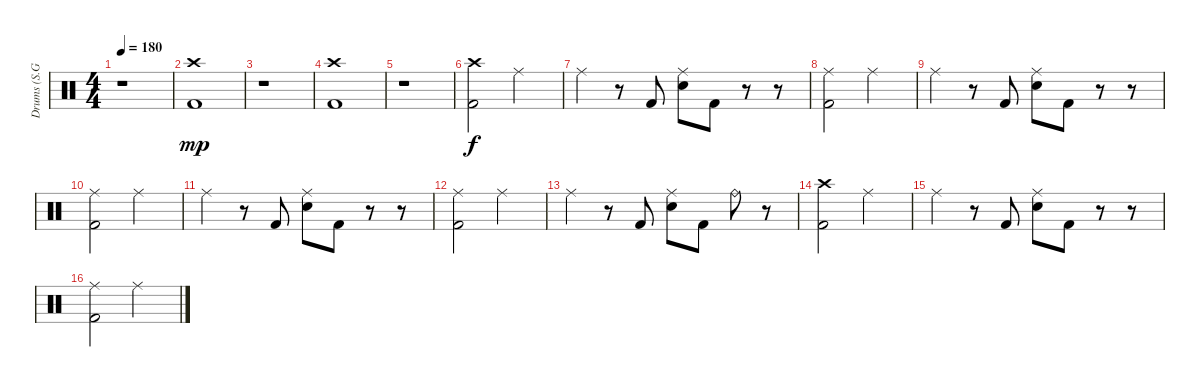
\track ("Drums (S.G. Yim)" "Drums (S.G") {instrument percussion}
\staff {score}
\articulation defaults
\ts (4 4)
\tempo 180
\clef neutral
\ks c
r.1{dy mp} |
("Crash high (hit)" "Kick (hit) 2").1 |
r.1 |
("Crash high (hit)" "Kick (hit) 2").1 |
r.1 |
("Crash high (hit)" "Kick (hit) 2").2{dy f} "Ride (middle)".2 |
"Ride (middle)".4 r.8 "Kick (hit) 2".8 ("Ride (middle)" "Snare (hit) 2").8 "Kick (hit) 2".8 r.8 r.8 |
("Ride (middle)" "Kick (hit) 2").2 "Ride (middle)".2 |
"Ride (middle)".4 r.8 "Kick (hit) 2".8 ("Ride (middle)" "Snare (hit) 2").8 "Kick (hit) 2".8 r.8 r.8 |
("Ride (middle)" "Kick (hit) 2").2 "Ride (middle)".2 |
"Ride (middle)".4 r.8 "Kick (hit) 2".8 ("Ride (middle)" "Snare (hit) 2").8 "Kick (hit) 2".8 r.8 r.8 |
("Ride (middle)" "Kick (hit) 2").2 "Ride (middle)".2 |
"Ride (middle)".4 r.8 "Kick (hit) 2".8 ("Ride (middle)" "Snare (hit) 2").8 "Kick (hit) 2".8 "Ride (bell)".8 r.8 |
("Crash high (hit)" "Kick (hit) 2").2 "Ride (middle)".2 |
"Ride (middle)".4 r.8 "Kick (hit) 2".8 ("Ride (middle)" "Snare (hit) 2").8 "Kick (hit) 2".8 r.8 r.8 |
("Ride (middle)" "Kick (hit) 2").2 "Ride (middle)".2
